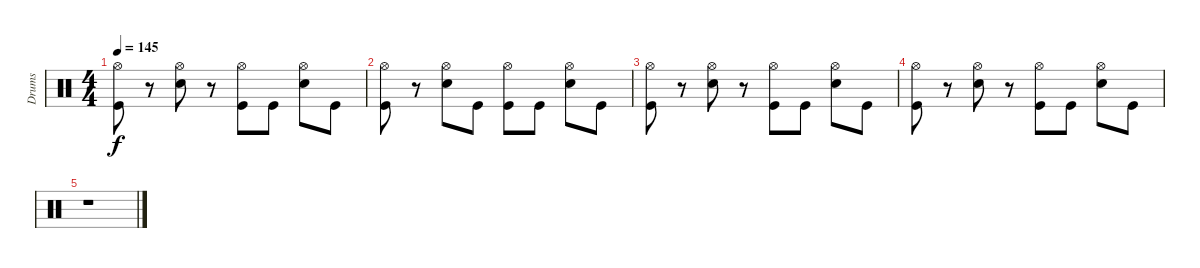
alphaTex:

\track ("Drums" "Drums") {instrument percussion}
\staff {score}
\articulation defaults
\ts (4 4)
\tempo 145
\clef neutral
\ks c
("Hi-Hat (open)" "Kick (hit)").8{dy f} r.8 ("Hi-Hat (open)" "Snare (hit) 2").8 r.8 ("Hi-Hat (open)" "Kick (hit)").8 "Kick (hit)".8 ("Hi-Hat (open)" "Snare (hit) 2").8 "Kick (hit)".8 |
("Hi-Hat (open)" "Kick (hit)").8 r.8 ("Hi-Hat (open)" "Snare (hit) 2").8 "Kick (hit)".8 ("Hi-Hat (open)" "Kick (hit)").8 "Kick (hit)".8 ("Hi-Hat (open)" "Snare (hit) 2").8 "Kick (hit)".8 |
("Hi-Hat (open)" "Kick (hit)").8 r.8 ("Hi-Hat (open)" "Snare (hit) 2").8 r.8 ("Hi-Hat (open)" "Kick (hit)").8 "Kick (hit)".8 ("Hi-Hat (open)" "Snare (hit) 2").8 "Kick (hit)".8 |
("Hi-Hat (open)" "Kick (hit)").8 r.8 ("Hi-Hat (open)" "Snare (hit) 2").8 r.8 ("Hi-Hat (open)" "Kick (hit)").8 "Kick (hit)".8 ("Hi-Hat (open)" "Snare (hit) 2").8 "Kick (hit)".8 |
r.1
